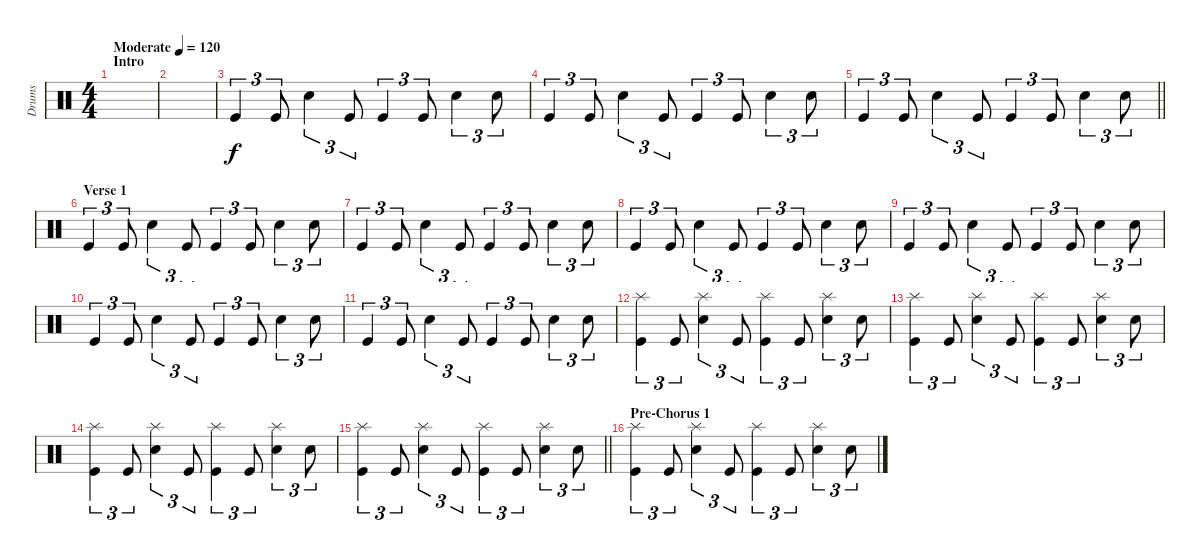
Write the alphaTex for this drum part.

\track ("Drums" "Drums") {instrument percussion}
\staff {score}
\articulation defaults
\ts (4 4)
\section ("" "Intro")
\tempo (120 "Moderate")
\clef neutral
\ks c
|
|
"Kick (hit)".4{tu (3 2)} "Kick (hit)".8{tu (3 2)} "Electric Snare (hit)".4{tu (3 2)} "Kick (hit)".8{tu (3 2)} "Kick (hit)".4{tu (3 2)} "Kick (hit)".8{tu (3 2)} "Electric Snare (hit)".4{tu (3 2)} "Electric Snare (hit)".8{tu (3 2)} |
"Kick (hit)".4{tu (3 2)} "Kick (hit)".8{tu (3 2)} "Electric Snare (hit)".4{tu (3 2)} "Kick (hit)".8{tu (3 2)} "Kick (hit)".4{tu (3 2)} "Kick (hit)".8{tu (3 2)} "Electric Snare (hit)".4{tu (3 2)} "Electric Snare (hit)".8{tu (3 2)} |
\barLineRight lightlight "Kick (hit)".4{tu (3 2)} "Kick (hit)".8{tu (3 2)} "Electric Snare (hit)".4{tu (3 2)} "Kick (hit)".8{tu (3 2)} "Kick (hit)".4{tu (3 2)} "Kick (hit)".8{tu (3 2)} "Electric Snare (hit)".4{tu (3 2)} "Electric Snare (hit)".8{tu (3 2)}
|
\section ("" "Verse 1")
"Kick (hit)".4{tu (3 2)} "Kick (hit)".8{tu (3 2)} "Electric Snare (hit)".4{tu (3 2)} "Kick (hit)".8{tu (3 2)} "Kick (hit)".4{tu (3 2)} "Kick (hit)".8{tu (3 2)} "Electric Snare (hit)".4{tu (3 2)} "Electric Snare (hit)".8{tu (3 2)} |
"Kick (hit)".4{tu (3 2)} "Kick (hit)".8{tu (3 2)} "Electric Snare (hit)".4{tu (3 2)} "Kick (hit)".8{tu (3 2)} "Kick (hit)".4{tu (3 2)} "Kick (hit)".8{tu (3 2)} "Electric Snare (hit)".4{tu (3 2)} "Electric Snare (hit)".8{tu (3 2)} |
"Kick (hit)".4{tu (3 2)} "Kick (hit)".8{tu (3 2)} "Electric Snare (hit)".4{tu (3 2)} "Kick (hit)".8{tu (3 2)} "Kick (hit)".4{tu (3 2)} "Kick (hit)".8{tu (3 2)} "Electric Snare (hit)".4{tu (3 2)} "Electric Snare (hit)".8{tu (3 2)} |
"Kick (hit)".4{tu (3 2)} "Kick (hit)".8{tu (3 2)} "Electric Snare (hit)".4{tu (3 2)} "Kick (hit)".8{tu (3 2)} "Kick (hit)".4{tu (3 2)} "Kick (hit)".8{tu (3 2)} "Electric Snare (hit)".4{tu (3 2)} "Electric Snare (hit)".8{tu (3 2)} |
"Kick (hit)".4{tu (3 2)} "Kick (hit)".8{tu (3 2)} "Electric Snare (hit)".4{tu (3 2)} "Kick (hit)".8{tu (3 2)} "Kick (hit)".4{tu (3 2)} "Kick (hit)".8{tu (3 2)} "Electric Snare (hit)".4{tu (3 2)} "Electric Snare (hit)".8{tu (3 2)} |
"Kick (hit)".4{tu (3 2)} "Kick (hit)".8{tu (3 2)} "Electric Snare (hit)".4{tu (3 2)} "Kick (hit)".8{tu (3 2)} "Kick (hit)".4{tu (3 2)} "Kick (hit)".8{tu (3 2)} "Electric Snare (hit)".4{tu (3 2)} "Electric Snare (hit)".8{tu (3 2)} |
("Splash (hit)" "Kick (hit)").4{tu (3 2)} "Kick (hit)".8{tu (3 2)} ("Splash (hit)" "Electric Snare (hit)").4{tu (3 2)} "Kick (hit)".8{tu (3 2)} ("Splash (hit)" "Kick (hit)").4{tu (3 2)} "Kick (hit)".8{tu (3 2)} ("Splash (hit)" "Electric Snare (hit)").4{tu (3 2)} "Electric Snare (hit)".8{tu (3 2)} |
("Splash (hit)" "Kick (hit)").4{tu (3 2)} "Kick (hit)".8{tu (3 2)} ("Splash (hit)" "Electric Snare (hit)").4{tu (3 2)} "Kick (hit)".8{tu (3 2)} ("Splash (hit)" "Kick (hit)").4{tu (3 2)} "Kick (hit)".8{tu (3 2)} ("Splash (hit)" "Electric Snare (hit)").4{tu (3 2)} "Electric Snare (hit)".8{tu (3 2)} |
("Splash (hit)" "Kick (hit)").4{tu (3 2)} "Kick (hit)".8{tu (3 2)} ("Splash (hit)" "Electric Snare (hit)").4{tu (3 2)} "Kick (hit)".8{tu (3 2)} ("Splash (hit)" "Kick (hit)").4{tu (3 2)} "Kick (hit)".8{tu (3 2)} ("Splash (hit)" "Electric Snare (hit)").4{tu (3 2)} "Electric Snare (hit)".8{tu (3 2)} |
\barLineRight lightlight
("Splash (hit)" "Kick (hit)").4{tu (3 2)} "Kick (hit)".8{tu (3 2)} ("Splash (hit)" "Electric Snare (hit)").4{tu (3 2)} "Kick (hit)".8{tu (3 2)} ("Splash (hit)" "Kick (hit)").4{tu (3 2)} "Kick (hit)".8{tu (3 2)} ("Splash (hit)" "Electric Snare (hit)").4{tu (3 2)} "Electric Snare (hit)".8{tu (3 2)} |
\section ("" "Pre-Chorus 1")
("Splash (hit)" "Kick (hit)").4{tu (3 2)} "Kick (hit)".8{tu (3 2)} ("Splash (hit)" "Electric Snare (hit)").4{tu (3 2)} "Kick (hit)".8{tu (3 2)} ("Splash (hit)" "Kick (hit)").4{tu (3 2)} "Kick (hit)".8{tu (3 2)} ("Splash (hit)" "Electric Snare (hit)").4{tu (3 2)} "Electric Snare (hit)".8{tu (3 2)}
